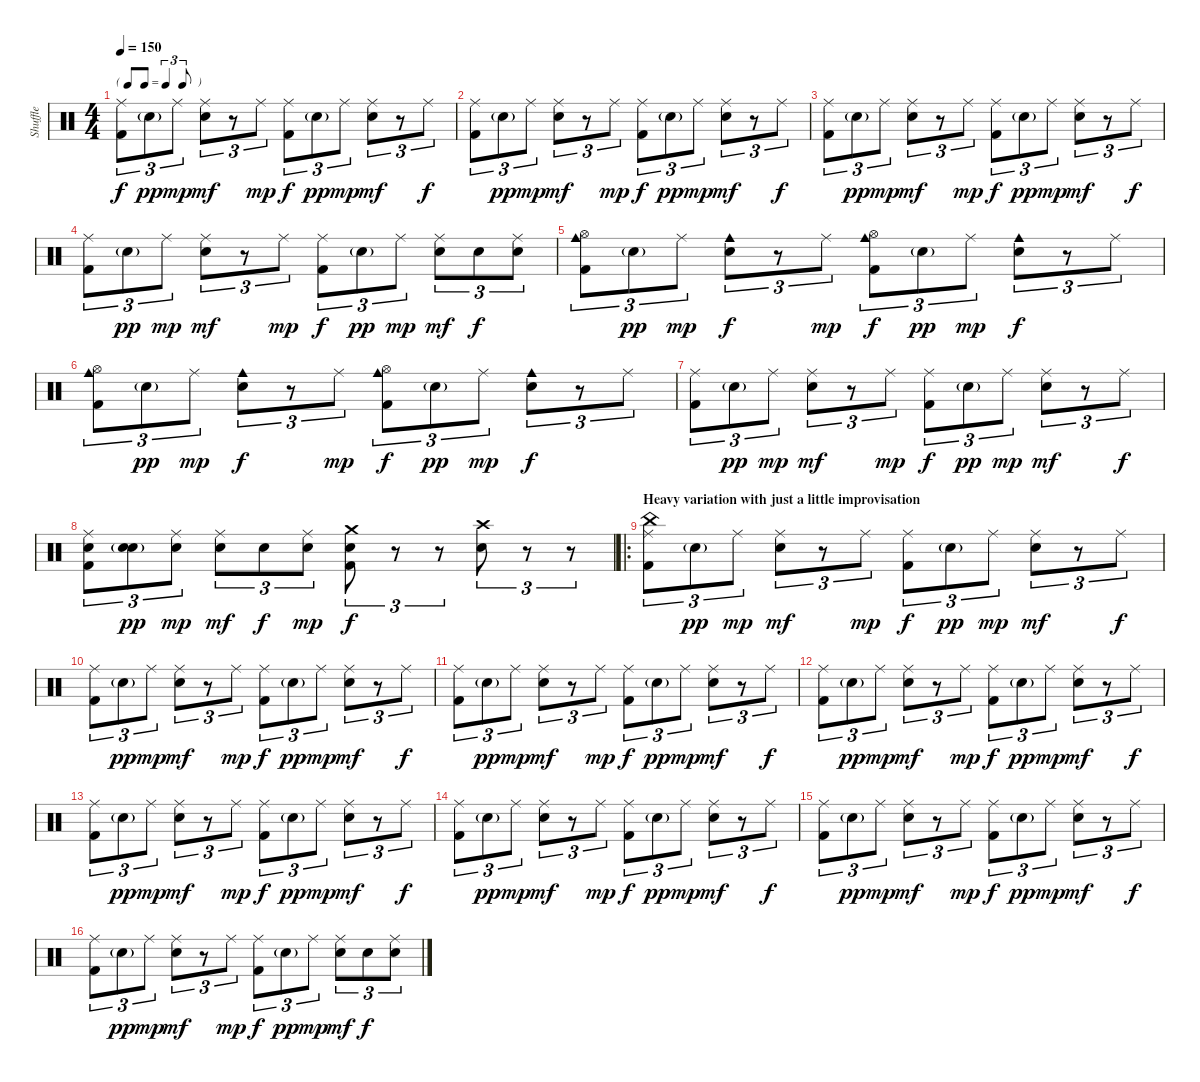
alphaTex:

\track ("Shuffle" "Shuffle") {instrument percussion}
\staff {score}
\articulation defaults
\ts (4 4)
\tf triplet8th
\tempo 150
\clef neutral
\ks c
("Ride (middle)" "Kick (hit) 2").8{tu (3 2) dy f} "Snare (hit) 2"{g}.8{tu (3 2) dy pp} "Ride (middle)".8{tu (3 2) dy mp} ("Ride (middle)" "Snare (hit) 2").8{tu (3 2) dy mf} r.8{tu (3 2)} "Ride (middle)".8{tu (3 2) dy mp} ("Ride (middle)" "Kick (hit) 2").8{tu (3 2) dy f} "Snare (hit) 2"{g}.8{tu (3 2) dy pp} "Ride (middle)".8{tu (3 2) dy mp} ("Ride (middle)" "Snare (hit) 2").8{tu (3 2) dy mf} r.8{tu (3 2)} "Ride (middle)".8{tu (3 2) dy f} |
("Ride (middle)" "Kick (hit) 2").8{tu (3 2)} "Snare (hit) 2"{g}.8{tu (3 2) dy pp} "Ride (middle)".8{tu (3 2) dy mp} ("Ride (middle)" "Snare (hit) 2").8{tu (3 2) dy mf} r.8{tu (3 2)} "Ride (middle)".8{tu (3 2) dy mp} ("Ride (middle)" "Kick (hit) 2").8{tu (3 2) dy f} "Snare (hit) 2"{g}.8{tu (3 2) dy pp} "Ride (middle)".8{tu (3 2) dy mp} ("Ride (middle)" "Snare (hit) 2").8{tu (3 2) dy mf} r.8{tu (3 2)} "Ride (middle)".8{tu (3 2) dy f} |
("Ride (middle)" "Kick (hit) 2").8{tu (3 2)} "Snare (hit) 2"{g}.8{tu (3 2) dy pp} "Ride (middle)".8{tu (3 2) dy mp} ("Ride (middle)" "Snare (hit) 2").8{tu (3 2) dy mf} r.8{tu (3 2)} "Ride (middle)".8{tu (3 2) dy mp} ("Ride (middle)" "Kick (hit) 2").8{tu (3 2) dy f} "Snare (hit) 2"{g}.8{tu (3 2) dy pp} "Ride (middle)".8{tu (3 2) dy mp} ("Ride (middle)" "Snare (hit) 2").8{tu (3 2) dy mf} r.8{tu (3 2)} "Ride (middle)".8{tu (3 2) dy f} |
("Ride (middle)" "Kick (hit) 2").8{tu (3 2)} "Snare (hit) 2"{g}.8{tu (3 2) dy pp} "Ride (middle)".8{tu (3 2) dy mp} ("Ride (middle)" "Snare (hit) 2").8{tu (3 2) dy mf} r.8{tu (3 2)} "Ride (middle)".8{tu (3 2) dy mp} ("Ride (middle)" "Kick (hit) 2").8{tu (3 2) dy f} "Snare (hit) 2"{g}.8{tu (3 2) dy pp} "Ride (middle)".8{tu (3 2) dy mp} ("Ride (middle)" "Snare (hit) 2").8{tu (3 2) dy mf} "Snare (hit) 2".8{tu (3 2) dy f} ("Ride (middle)" "Snare (hit) 2").8{tu (3 2)} |
("Hi-Hat (open)" "Kick (hit) 2" "Cowbell medium (hit)").8{tu (3 2)} "Snare (hit) 2"{g}.8{tu (3 2) dy pp} "Ride (middle)".8{tu (3 2) dy mp} ("Snare (hit) 2" "Cowbell medium (hit)").8{tu (3 2) dy f} r.8{tu (3 2)} "Ride (middle)".8{tu (3 2) dy mp} ("Hi-Hat (open)" "Kick (hit) 2" "Cowbell medium (hit)").8{tu (3 2) dy f} "Snare (hit) 2"{g}.8{tu (3 2) dy pp} "Ride (middle)".8{tu (3 2) dy mp} ("Snare (hit) 2" "Cowbell medium (hit)").8{tu (3 2) dy f} r.8{tu (3 2)} "Ride (middle)".8{tu (3 2)} |
("Hi-Hat (open)" "Kick (hit) 2" "Cowbell medium (hit)").8{tu (3 2)} "Snare (hit) 2"{g}.8{tu (3 2) dy pp} "Ride (middle)".8{tu (3 2) dy mp} ("Snare (hit) 2" "Cowbell medium (hit)").8{tu (3 2) dy f} r.8{tu (3 2)} "Ride (middle)".8{tu (3 2) dy mp} ("Hi-Hat (open)" "Kick (hit) 2" "Cowbell medium (hit)").8{tu (3 2) dy f} "Snare (hit) 2"{g}.8{tu (3 2) dy pp} "Ride (middle)".8{tu (3 2) dy mp} ("Snare (hit) 2" "Cowbell medium (hit)").8{tu (3 2) dy f} r.8{tu (3 2)} "Ride (middle)".8{tu (3 2)} |
("Ride (middle)" "Kick (hit) 2").8{tu (3 2)} "Snare (hit) 2"{g}.8{tu (3 2) dy pp} "Ride (middle)".8{tu (3 2) dy mp} ("Ride (middle)" "Snare (hit) 2").8{tu (3 2) dy mf} r.8{tu (3 2)} "Ride (middle)".8{tu (3 2) dy mp} ("Ride (middle)" "Kick (hit) 2").8{tu (3 2) dy f} "Snare (hit) 2"{g}.8{tu (3 2) dy pp} "Ride (middle)".8{tu (3 2) dy mp} ("Ride (middle)" "Snare (hit) 2").8{tu (3 2) dy mf} r.8{tu (3 2)} "Ride (middle)".8{tu (3 2) dy f} |
("Ride (middle)" "Kick (hit) 2" "Snare (hit) 2").8{tu (3 2)} ("Snare (hit) 2"{g} "Snare (hit) 2").8{tu (3 2) dy pp} ("Ride (middle)" "Snare (hit) 2").8{tu (3 2) dy mp} ("Ride (middle)" "Snare (hit) 2").8{tu (3 2) dy mf} "Snare (hit) 2".8{tu (3 2) dy f} ("Ride (middle)" "Snare (hit) 2").8{tu (3 2) dy mp} ("Kick (hit) 2" "Crash medium (hit)" "Snare (hit) 2").8{tu (3 2) dy f} r.8{tu (3 2)} r.8{tu (3 2)} ("Crash high (hit)" "Snare (hit) 2").8{tu (3 2)} r.8{tu (3 2)} r.8{tu (3 2)} |
\ro
\section ("" "Heavy variation with just a little improvisation")
("Ride (middle)" "Kick (hit) 2" "China (hit)").8{tu (3 2)} "Snare (hit) 2"{g}.8{tu (3 2) dy pp} "Ride (middle)".8{tu (3 2) dy mp} ("Ride (middle)" "Snare (hit) 2").8{tu (3 2) dy mf} r.8{tu (3 2)} "Ride (middle)".8{tu (3 2) dy mp} ("Ride (middle)" "Kick (hit) 2").8{tu (3 2) dy f} "Snare (hit) 2"{g}.8{tu (3 2) dy pp} "Ride (middle)".8{tu (3 2) dy mp} ("Ride (middle)" "Snare (hit) 2").8{tu (3 2) dy mf} r.8{tu (3 2)} "Ride (middle)".8{tu (3 2) dy f} |
("Ride (middle)" "Kick (hit) 2").8{tu (3 2)} "Snare (hit) 2"{g}.8{tu (3 2) dy pp} "Ride (middle)".8{tu (3 2) dy mp} ("Ride (middle)" "Snare (hit) 2").8{tu (3 2) dy mf} r.8{tu (3 2)} "Ride (middle)".8{tu (3 2) dy mp} ("Ride (middle)" "Kick (hit) 2").8{tu (3 2) dy f} "Snare (hit) 2"{g}.8{tu (3 2) dy pp} "Ride (middle)".8{tu (3 2) dy mp} ("Ride (middle)" "Snare (hit) 2").8{tu (3 2) dy mf} r.8{tu (3 2)} "Ride (middle)".8{tu (3 2) dy f} |
("Ride (middle)" "Kick (hit) 2").8{tu (3 2)} "Snare (hit) 2"{g}.8{tu (3 2) dy pp} "Ride (middle)".8{tu (3 2) dy mp} ("Ride (middle)" "Snare (hit) 2").8{tu (3 2) dy mf} r.8{tu (3 2)} "Ride (middle)".8{tu (3 2) dy mp} ("Ride (middle)" "Kick (hit) 2").8{tu (3 2) dy f} "Snare (hit) 2"{g}.8{tu (3 2) dy pp} "Ride (middle)".8{tu (3 2) dy mp} ("Ride (middle)" "Snare (hit) 2").8{tu (3 2) dy mf} r.8{tu (3 2)} "Ride (middle)".8{tu (3 2) dy f} |
("Ride (middle)" "Kick (hit) 2").8{tu (3 2)} "Snare (hit) 2"{g}.8{tu (3 2) dy pp} "Ride (middle)".8{tu (3 2) dy mp} ("Ride (middle)" "Snare (hit) 2").8{tu (3 2) dy mf} r.8{tu (3 2)} "Ride (middle)".8{tu (3 2) dy mp} ("Ride (middle)" "Kick (hit) 2").8{tu (3 2) dy f} "Snare (hit) 2"{g}.8{tu (3 2) dy pp} "Ride (middle)".8{tu (3 2) dy mp} ("Ride (middle)" "Snare (hit) 2").8{tu (3 2) dy mf} r.8{tu (3 2)} "Ride (middle)".8{tu (3 2) dy f} |
("Ride (middle)" "Kick (hit) 2").8{tu (3 2)} "Snare (hit) 2"{g}.8{tu (3 2) dy pp} "Ride (middle)".8{tu (3 2) dy mp} ("Ride (middle)" "Snare (hit) 2").8{tu (3 2) dy mf} r.8{tu (3 2)} "Ride (middle)".8{tu (3 2) dy mp} ("Ride (middle)" "Kick (hit) 2").8{tu (3 2) dy f} "Snare (hit) 2"{g}.8{tu (3 2) dy pp} "Ride (middle)".8{tu (3 2) dy mp} ("Ride (middle)" "Snare (hit) 2").8{tu (3 2) dy mf} r.8{tu (3 2)} "Ride (middle)".8{tu (3 2) dy f} |
("Ride (middle)" "Kick (hit) 2").8{tu (3 2)} "Snare (hit) 2"{g}.8{tu (3 2) dy pp} "Ride (middle)".8{tu (3 2) dy mp} ("Ride (middle)" "Snare (hit) 2").8{tu (3 2) dy mf} r.8{tu (3 2)} "Ride (middle)".8{tu (3 2) dy mp} ("Ride (middle)" "Kick (hit) 2").8{tu (3 2) dy f} "Snare (hit) 2"{g}.8{tu (3 2) dy pp} "Ride (middle)".8{tu (3 2) dy mp} ("Ride (middle)" "Snare (hit) 2").8{tu (3 2) dy mf} r.8{tu (3 2)} "Ride (middle)".8{tu (3 2) dy f} |
("Ride (middle)" "Kick (hit) 2").8{tu (3 2)} "Snare (hit) 2"{g}.8{tu (3 2) dy pp} "Ride (middle)".8{tu (3 2) dy mp} ("Ride (middle)" "Snare (hit) 2").8{tu (3 2) dy mf} r.8{tu (3 2)} "Ride (middle)".8{tu (3 2) dy mp} ("Ride (middle)" "Kick (hit) 2").8{tu (3 2) dy f} "Snare (hit) 2"{g}.8{tu (3 2) dy pp} "Ride (middle)".8{tu (3 2) dy mp} ("Ride (middle)" "Snare (hit) 2").8{tu (3 2) dy mf} r.8{tu (3 2)} "Ride (middle)".8{tu (3 2) dy f} |
("Ride (middle)" "Kick (hit) 2").8{tu (3 2)} "Snare (hit) 2"{g}.8{tu (3 2) dy pp} "Ride (middle)".8{tu (3 2) dy mp} ("Ride (middle)" "Snare (hit) 2").8{tu (3 2) dy mf} r.8{tu (3 2)} "Ride (middle)".8{tu (3 2) dy mp} ("Ride (middle)" "Kick (hit) 2").8{tu (3 2) dy f} "Snare (hit) 2"{g}.8{tu (3 2) dy pp} "Ride (middle)".8{tu (3 2) dy mp} ("Ride (middle)" "Snare (hit) 2").8{tu (3 2) dy mf} "Snare (hit) 2".8{tu (3 2) dy f} ("Ride (middle)" "Snare (hit) 2").8{tu (3 2)}
